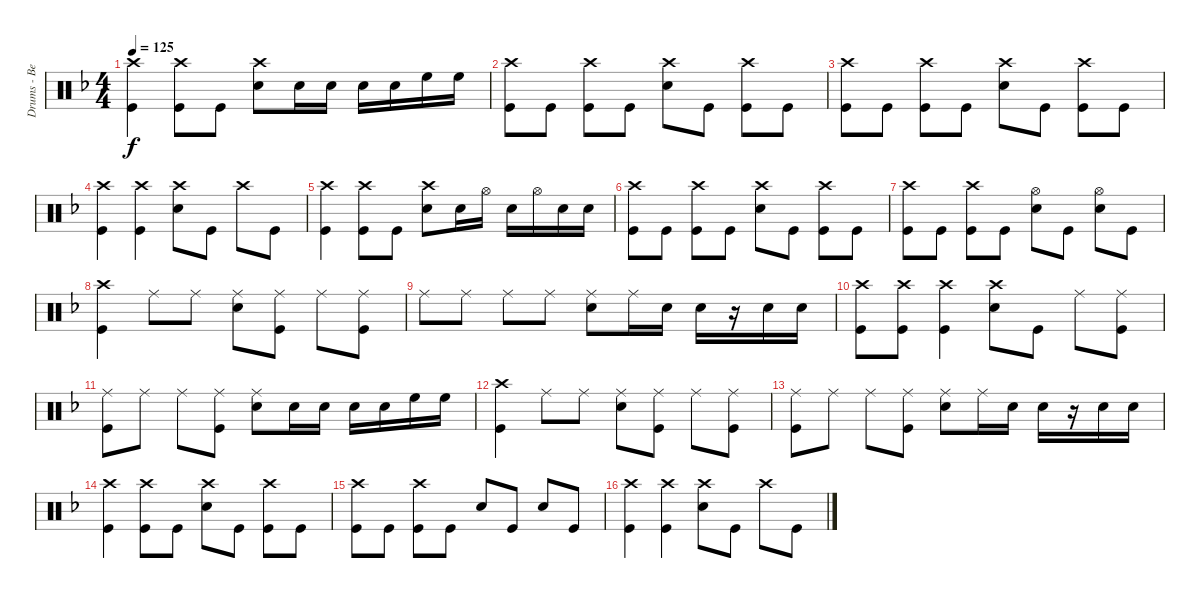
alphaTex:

\track ("Drums - Ben Johnston" "Drums - Be") {instrument percussion}
\staff {score}
\articulation defaults
\ts (4 4)
\tempo 125
\clef neutral
\ks dminor
("Crash high (hit)" "Kick (hit)").4{dy f} ("Crash high (hit)" "Kick (hit)").8 "Kick (hit)".8 ("Crash high (hit)" "Snare (hit) 2").8 "Snare (hit) 2".16 "Snare (hit) 2".16 "Snare (hit) 2".16 "Snare (hit) 2".16 "High Floor Tom (hit)".16 "High Floor Tom (hit)".16 |
("Crash high (hit)" "Kick (hit)").8 "Kick (hit)".8 ("Crash high (hit)" "Kick (hit)").8 "Kick (hit)".8 ("Crash high (hit)" "Snare (hit) 2").8 "Kick (hit)".8 ("Crash high (hit)" "Kick (hit)").8 "Kick (hit)".8 |
("Crash high (hit)" "Kick (hit)").8 "Kick (hit)".8 ("Crash high (hit)" "Kick (hit)").8 "Kick (hit)".8 ("Crash high (hit)" "Snare (hit) 2").8 "Kick (hit)".8 ("Crash high (hit)" "Kick (hit)").8 "Kick (hit)".8 |
("Crash high (hit)" "Kick (hit)").4 ("Crash high (hit)" "Kick (hit)").4 ("Crash high (hit)" "Snare (hit) 2").8 "Kick (hit)".8 "Crash high (hit)".8 "Kick (hit)".8 |
("Crash high (hit)" "Kick (hit)").4 ("Crash high (hit)" "Kick (hit)").8 "Kick (hit)".8 ("Crash high (hit)" "Snare (hit) 2").8 "Snare (hit) 2".16 "Hi-Hat (open)".16 "Snare (hit) 2".16 "Hi-Hat (open)".16 "Snare (hit) 2".16 "Snare (hit) 2".16 |
("Crash high (hit)" "Kick (hit)").8 "Kick (hit)".8 ("Crash high (hit)" "Kick (hit)").8 "Kick (hit)".8 ("Crash high (hit)" "Snare (hit) 2").8 "Kick (hit)".8 ("Crash high (hit)" "Kick (hit)").8 "Kick (hit)".8 |
("Crash high (hit)" "Kick (hit)").8 "Kick (hit)".8 ("Crash high (hit)" "Kick (hit)").8 "Kick (hit)".8 ("Hi-Hat (open)" "Snare (hit) 2").8 "Kick (hit)".8 ("Hi-Hat (open)" "Snare (hit) 2").8 "Kick (hit)".8 |
("Crash high (hit)" "Kick (hit)").4 "Ride (middle)".8 "Ride (middle)".8 ("Ride (middle)" "Snare (hit) 2").8 ("Ride (middle)" "Kick (hit)").8 "Ride (middle)".8 ("Ride (middle)" "Kick (hit)").8 |
"Ride (middle)".8 "Ride (middle)".8 "Ride (middle)".8 "Ride (middle)".8 ("Ride (middle)" "Snare (hit) 2").8 "Ride (middle)".16 "Snare (hit) 2".16 "Snare (hit) 2".16 r.16 "Snare (hit) 2".16 "Snare (hit) 2".16 |
("Crash high (hit)" "Kick (hit)").8 ("Crash high (hit)" "Kick (hit)").8 ("Crash high (hit)" "Kick (hit)").4 ("Crash high (hit)" "Snare (hit) 2").8 "Kick (hit)".8 "Ride (middle)".8 ("Ride (middle)" "Kick (hit)").8 |
("Ride (middle)" "Kick (hit)").8 "Ride (middle)".8 "Ride (middle)".8 ("Ride (middle)" "Kick (hit)").8 ("Ride (middle)" "Snare (hit) 2").8 "Snare (hit) 2".16 "Snare (hit) 2".16 "Snare (hit) 2".16 "Snare (hit) 2".16 "High Floor Tom (hit)".16 "High Floor Tom (hit)".16 |
("Crash high (hit)" "Kick (hit)").4 "Ride (middle)".8 "Ride (middle)".8 ("Ride (middle)" "Snare (hit) 2").8 ("Ride (middle)" "Kick (hit)").8 "Ride (middle)".8 ("Ride (middle)" "Kick (hit)").8 |
("Ride (middle)" "Kick (hit)").8 "Ride (middle)".8 "Ride (middle)".8 ("Ride (middle)" "Kick (hit)").8 ("Ride (middle)" "Snare (hit) 2").8 "Ride (middle)".16 "Snare (hit) 2".16 "Snare (hit) 2".16 r.16 "Snare (hit) 2".16 "Snare (hit) 2".16 |
("Crash high (hit)" "Kick (hit)").4 ("Crash high (hit)" "Kick (hit)").8 "Kick (hit)".8 ("Crash high (hit)" "Snare (hit) 2").8 "Kick (hit)".8 ("Crash high (hit)" "Kick (hit)").8 "Kick (hit)".8 |
("Crash high (hit)" "Kick (hit)").8 "Kick (hit)".8 ("Crash high (hit)" "Kick (hit)").8 "Kick (hit)".8 "Snare (hit) 2".8 "Kick (hit)".8 "Snare (hit) 2".8 "Kick (hit)".8 |
("Crash high (hit)" "Kick (hit)").4 ("Crash high (hit)" "Kick (hit)").4 ("Crash high (hit)" "Snare (hit) 2").8 "Kick (hit)".8 "Crash high (hit)".8 "Kick (hit)".8
